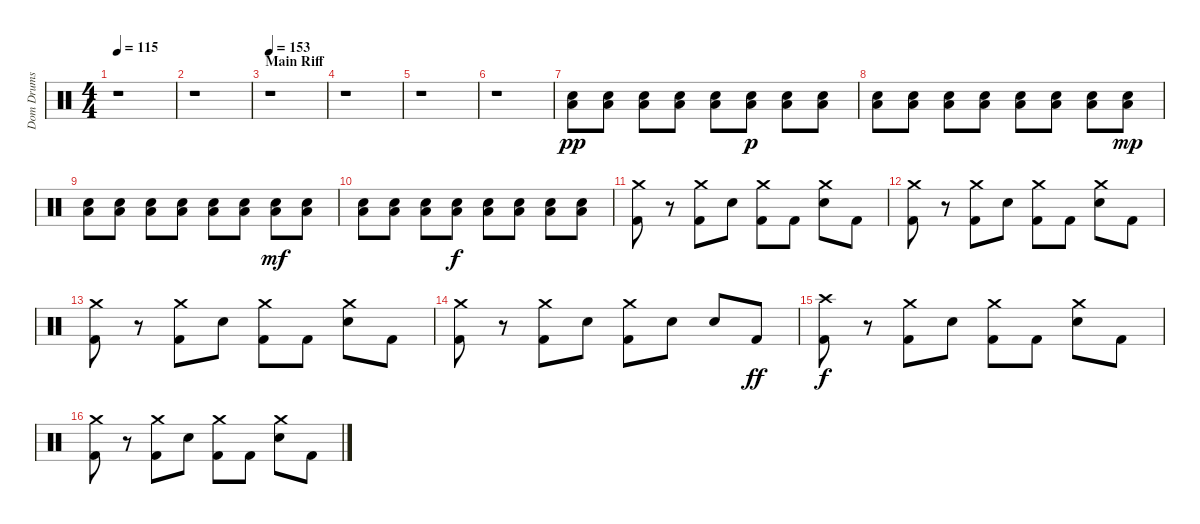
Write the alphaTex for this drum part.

\track ("Dom Drums" "Dom Drums") {instrument percussion}
\staff {score}
\articulation defaults
\ts (4 4)
\tempo 115
\clef neutral
\ks c
r.1{dy mp} |
r.1 |
\section ("" "Main Riff")
\tempo 153
r.1 |
r.1 |
r.1 |
r.1 |
("Low Floor Tom (hit)" "Snare (hit) 2").8{dy pp} ("Low Floor Tom (hit)" "Snare (hit) 2").8 ("Low Floor Tom (hit)" "Snare (hit) 2").8 ("Low Floor Tom (hit)" "Snare (hit) 2").8 ("Low Floor Tom (hit)" "Snare (hit) 2").8 ("Low Floor Tom (hit)" "Snare (hit) 2").8{dy p} ("Low Floor Tom (hit)" "Snare (hit) 2").8 ("Low Floor Tom (hit)" "Snare (hit) 2").8 |
("Low Floor Tom (hit)" "Snare (hit) 2").8 ("Low Floor Tom (hit)" "Snare (hit) 2").8 ("Low Floor Tom (hit)" "Snare (hit) 2").8 ("Low Floor Tom (hit)" "Snare (hit) 2").8 ("Low Floor Tom (hit)" "Snare (hit) 2").8 ("Low Floor Tom (hit)" "Snare (hit) 2").8 ("Low Floor Tom (hit)" "Snare (hit) 2").8 ("Low Floor Tom (hit)" "Snare (hit) 2").8{dy mp} |
("Low Floor Tom (hit)" "Snare (hit) 2").8 ("Low Floor Tom (hit)" "Snare (hit) 2").8 ("Low Floor Tom (hit)" "Snare (hit) 2").8 ("Low Floor Tom (hit)" "Snare (hit) 2").8 ("Low Floor Tom (hit)" "Snare (hit) 2").8 ("Low Floor Tom (hit)" "Snare (hit) 2").8 ("Low Floor Tom (hit)" "Snare (hit) 2").8{dy mf} ("Low Floor Tom (hit)" "Snare (hit) 2").8 |
("Low Floor Tom (hit)" "Snare (hit) 2").8 ("Low Floor Tom (hit)" "Snare (hit) 2").8 ("Low Floor Tom (hit)" "Snare (hit) 2").8 ("Low Floor Tom (hit)" "Snare (hit) 2").8{dy f} ("Low Floor Tom (hit)" "Snare (hit) 2").8 ("Low Floor Tom (hit)" "Snare (hit) 2").8 ("Low Floor Tom (hit)" "Snare (hit) 2").8 ("Low Floor Tom (hit)" "Snare (hit) 2").8 |
("Crash medium (hit)" "Kick (hit) 2").8 r.8 ("Crash medium (hit)" "Kick (hit) 2").8 "Snare (hit) 2".8 ("Crash medium (hit)" "Kick (hit) 2").8 "Kick (hit) 2".8 ("Crash medium (hit)" "Snare (hit) 2").8 "Kick (hit) 2".8 |
("Crash medium (hit)" "Kick (hit) 2").8 r.8 ("Crash medium (hit)" "Kick (hit) 2").8 "Snare (hit) 2".8 ("Crash medium (hit)" "Kick (hit) 2").8 "Kick (hit) 2".8 ("Crash medium (hit)" "Snare (hit) 2").8 "Kick (hit) 2".8 |
("Crash medium (hit)" "Kick (hit) 2").8 r.8 ("Crash medium (hit)" "Kick (hit) 2").8 "Snare (hit) 2".8 ("Crash medium (hit)" "Kick (hit) 2").8 "Kick (hit) 2".8 ("Crash medium (hit)" "Snare (hit) 2").8 "Kick (hit) 2".8 |
("Crash medium (hit)" "Kick (hit) 2").8 r.8 ("Crash medium (hit)" "Kick (hit) 2").8 "Snare (hit) 2".8 ("Crash medium (hit)" "Kick (hit) 2").8 "Snare (hit) 2".8 "Snare (hit) 2".8 "Kick (hit) 2".8{dy ff} |
("Crash high (hit)" "Kick (hit) 2").8{dy f} r.8 ("Crash medium (hit)" "Kick (hit) 2").8 "Snare (hit) 2".8 ("Crash medium (hit)" "Kick (hit) 2").8 "Kick (hit) 2".8 ("Crash medium (hit)" "Snare (hit) 2").8 "Kick (hit) 2".8 |
("Crash medium (hit)" "Kick (hit) 2").8 r.8 ("Crash medium (hit)" "Kick (hit) 2").8 "Snare (hit) 2".8 ("Crash medium (hit)" "Kick (hit) 2").8 "Kick (hit) 2".8 ("Crash medium (hit)" "Snare (hit) 2").8 "Kick (hit) 2".8
